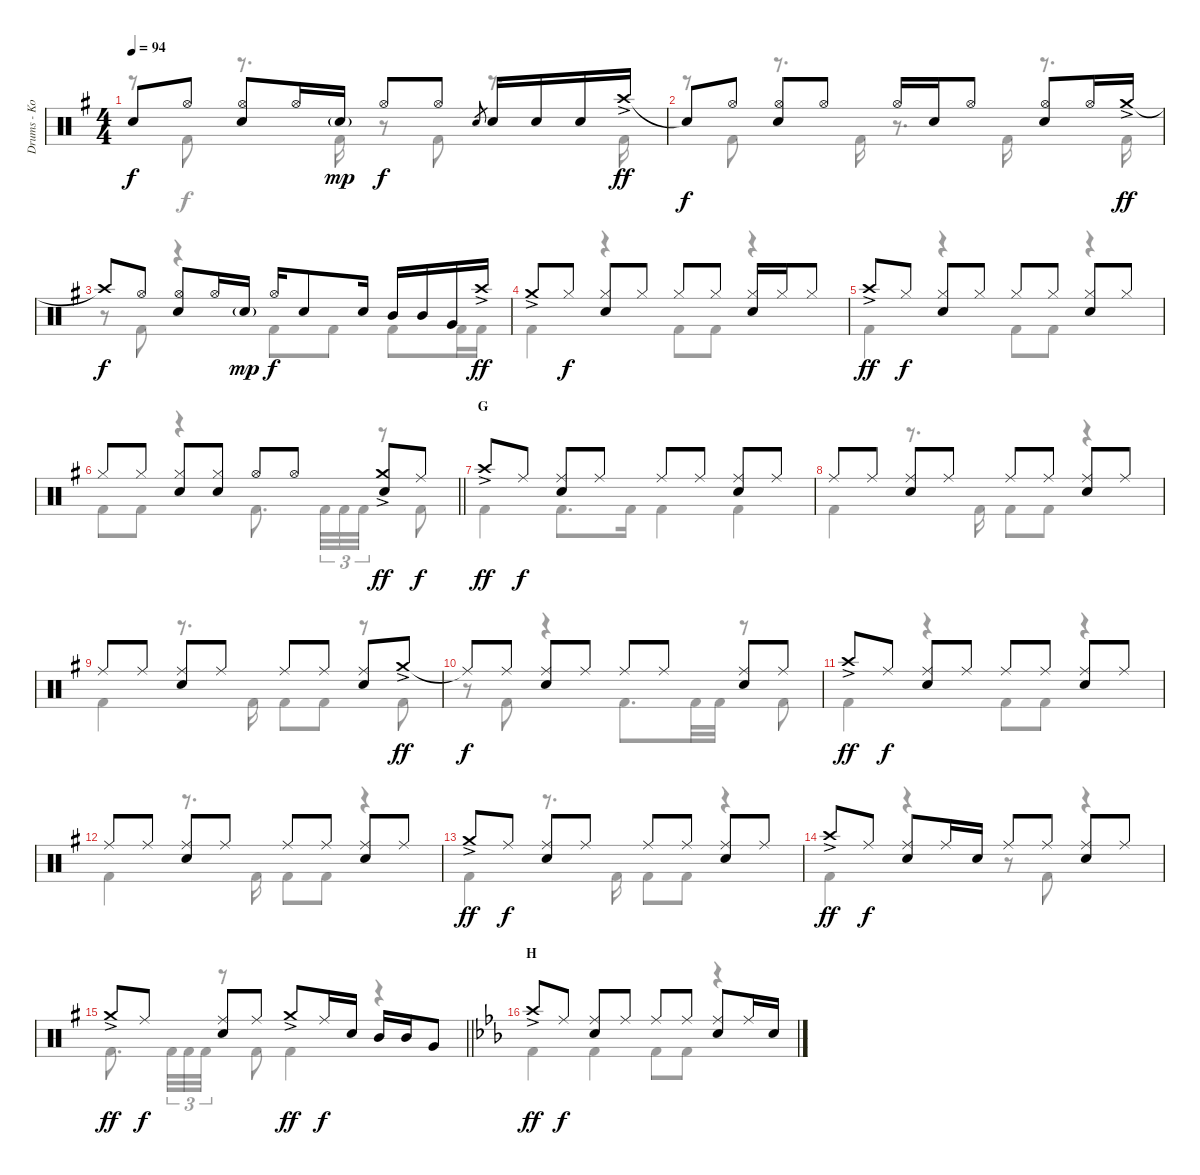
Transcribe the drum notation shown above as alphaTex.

\track ("Drums - Koji Hasegawa" "Drums - Ko") {instrument percussion}
\staff {score}
\articulation defaults
\voice
\ts (4 4)
\tempo 94
\clef neutral
\ks g "Snare (hit)"{t}.8{dy f} "Hi-Hat (open)".8
("Hi-Hat (open)" "Electric Snare (hit)").8 "Hi-Hat (open)".16 "Electric Snare (hit)"{g}.16{dy mp} "Hi-Hat (open)".8{dy f} "Hi-Hat (open)".8 "Electric Snare (hit)".8{gr} "Electric Snare (hit)".16 "Electric Snare (hit)".16 "Electric Snare (hit)".16 "Crash high (hit)"{ac}.16{dy ff} |
"Snare (hit)"{t}.8{dy f} "Hi-Hat (open)".8 ("Hi-Hat (open)" "Snare (hit) 2").8 "Hi-Hat (open)".8 "Hi-Hat (open)".16 "Electric Snare (hit)".16 "Hi-Hat (open)".8 ("Hi-Hat (open)" "Snare (hit) 2").8 "Hi-Hat (open)".16 "Crash medium (hit)"{ac}.16{dy ff} |
"Crash high (hit)"{t}.8{dy f} "Hi-Hat (open)".8 ("Hi-Hat (open)" "Electric Snare (hit)").8 "Hi-Hat (open)".16 "Electric Snare (hit)"{g}.16{dy mp} "Hi-Hat (open)".16{dy f} "Electric Snare (hit)".8 "Electric Snare (hit)".16 "Mid Tom (hit)".16 "Mid Tom (hit)".16 "Very Low Tom (hit)".16 "Crash high (hit)"{ac}.16{dy ff} |
"Crash medium (hit)"{ac}.8 "Hi-Hat (closed)".8{dy f} ("Hi-Hat (closed)" "Electric Snare (hit)").8 "Hi-Hat (closed)".8 "Hi-Hat (closed)".8 "Hi-Hat (closed)".8 ("Hi-Hat (closed)" "Electric Snare (hit)").16 "Hi-Hat (closed)".16 "Hi-Hat (closed)".8 |
"Crash high (hit)"{ac}.8{dy ff} "Hi-Hat (closed)".8{dy f} ("Hi-Hat (closed)" "Electric Snare (hit)").8 "Hi-Hat (closed)".8 "Hi-Hat (closed)".8 "Hi-Hat (closed)".8 ("Hi-Hat (closed)" "Electric Snare (hit)").8 "Hi-Hat (closed)".8 |
\barLineRight lightlight "Hi-Hat (closed)".8 "Hi-Hat (closed)".8
("Hi-Hat (closed)" "Electric Snare (hit)").8 ("Hi-Hat (closed)" "Electric Snare (hit)").8 "Hi-Hat (open)".8 "Hi-Hat (open)".8 ("Crash medium (hit)"{ac} "Electric Snare (hit)").8{dy ff} "Ride (middle)".8{dy f} |
\section ("" "G")
"Crash high (hit)"{ac}.8{dy ff} "Ride (middle)".8{dy f} ("Ride (middle)" "Electric Snare (hit)").8 "Ride (middle)".8 "Ride (middle)".8 "Ride (middle)".8 ("Ride (middle)" "Electric Snare (hit)").8 "Ride (middle)".8 |
"Ride (middle)".8 "Ride (middle)".8 ("Ride (middle)" "Electric Snare (hit)").8 "Ride (middle)".8 "Ride (middle)".8 "Ride (middle)".8 ("Ride (middle)" "Electric Snare (hit)").8 "Ride (middle)".8 |
"Ride (middle)".8 "Ride (middle)".8 ("Ride (middle)" "Electric Snare (hit)").8 "Ride (middle)".8 "Ride (middle)".8 "Ride (middle)".8 ("Ride (middle)" "Electric Snare (hit)").8 "Crash medium (hit)"{ac}.8{dy ff} |
"Ride (middle)"{t}.8{dy f} "Ride (middle)".8 ("Ride (middle)" "Electric Snare (hit)").8 "Ride (middle)".8 "Ride (middle)".8 "Ride (middle)".8 ("Ride (middle)" "Electric Snare (hit)").8 "Ride (middle)".8 |
"Crash high (hit)"{ac}.8{dy ff} "Ride (middle)".8{dy f} ("Ride (middle)" "Electric Snare (hit)").8 "Ride (middle)".8 "Ride (middle)".8 "Ride (middle)".8 ("Ride (middle)" "Electric Snare (hit)").8 "Ride (middle)".8 |
"Ride (middle)".8 "Ride (middle)".8 ("Ride (middle)" "Electric Snare (hit)").8 "Ride (middle)".8 "Ride (middle)".8 "Ride (middle)".8 ("Ride (middle)" "Electric Snare (hit)").8 "Ride (middle)".8 |
"Crash medium (hit)"{ac}.8{dy ff} "Ride (middle)".8{dy f} ("Ride (middle)" "Electric Snare (hit)").8 "Ride (middle)".8 "Ride (middle)".8 "Ride (middle)".8 ("Ride (middle)" "Electric Snare (hit)").8 "Ride (middle)".8 |
"Crash high (hit)"{ac}.8{dy ff} "Ride (middle)".8{dy f} ("Ride (middle)" "Electric Snare (hit)").8 "Ride (middle)".16 "Electric Snare (hit)".16 "Ride (middle)".8 "Ride (middle)".8 ("Ride (middle)" "Electric Snare (hit)").8 "Ride (middle)".8 |
\barLineRight lightlight "Crash medium (hit)"{ac}.8{dy ff} "Ride (middle)".8{dy f}
("Ride (middle)" "Electric Snare (hit)").8 "Ride (middle)".8 "Crash medium (hit)"{ac}.8{dy ff} "Ride (middle)".16{dy f} "Electric Snare (hit)".16 "Mid Tom (hit)".16 "Mid Tom (hit)".16 "Very Low Tom (hit)".8 |
\section ("" "H")
\ks eb "Crash high (hit)"{ac}.8{dy ff} "Ride (middle)".8{dy f}
("Ride (middle)" "Electric Snare (hit)").8 "Ride (middle)".8 "Ride (middle)".8 "Ride (middle)".8 ("Ride (middle)" "Electric Snare (hit)").8 "Ride (middle)".16 "Electric Snare (hit)".16
\voice
\clef neutral
\ottava regular
\simile none
\ks g
r.8{dy f} "Kick (hit) 2".8 r.8{d} "Kick (hit) 2".16 r.8 "Kick (hit) 2".8 r.8{d} "Kick (hit) 2".16 |
r.8 "Kick (hit) 2".8 r.8{d} "Kick (hit) 2".16 r.8{d} "Kick (hit) 2".16 r.8{d} "Kick (hit) 2".16 |
r.8 "Kick (hit) 2".8 r.4 "Kick (hit) 2".8 "Kick (hit) 2".8 "Kick (hit) 2".8 "Kick (hit) 2".16 "Kick (hit) 2".16 |
"Kick (hit) 2".4 r.4 "Kick (hit) 2".8 "Kick (hit) 2".8 r.4 |
"Kick (hit) 2".4 r.4 "Kick (hit) 2".8 "Kick (hit) 2".8 r.4 |
\barLineRight lightlight "Kick (hit) 2".8 "Kick (hit) 2".8
r.4 "Kick (hit) 2".8{d} "Kick (hit) 2".32{tu (3 2)} "Kick (hit) 2".32{tu (3 2)} "Kick (hit) 2".32{tu (3 2)} r.8 "Kick (hit) 2".8 |
"Kick (hit) 2".4 "Kick (hit) 2".8{d} "Kick (hit) 2".16 "Kick (hit) 2".4 "Kick (hit) 2".4 |
"Kick (hit) 2".4 r.8{d} "Kick (hit) 2".16 "Kick (hit) 2".8 "Kick (hit) 2".8 r.4 |
"Kick (hit) 2".4 r.8{d} "Kick (hit) 2".16 "Kick (hit) 2".8 "Kick (hit) 2".8 r.8 "Kick (hit) 2".8 |
r.8 "Kick (hit) 2".8 r.4 "Kick (hit) 2".8{d} "Kick (hit) 2".32 "Kick (hit) 2".32 r.8 "Kick (hit) 2".8 |
"Kick (hit) 2".4 r.4 "Kick (hit) 2".8 "Kick (hit) 2".8 r.4 |
"Kick (hit) 2".4 r.8{d} "Kick (hit) 2".16 "Kick (hit) 2".8 "Kick (hit) 2".8 r.4 |
"Kick (hit) 2".4 r.8{d} "Kick (hit) 2".16 "Kick (hit) 2".8 "Kick (hit) 2".8 r.4 |
"Kick (hit) 2".4 r.4 r.8 "Kick (hit) 2".8 r.4 |
\barLineRight lightlight "Kick (hit) 2".8{d} "Kick (hit) 2".32{tu (3 2)} "Kick (hit) 2".32{tu (3 2)} "Kick (hit) 2".32{tu (3 2)}
r.8 "Kick (hit) 2".8 "Kick (hit) 2".4 r.4 |
\ks eb "Kick (hit) 2".4 "Kick (hit) 2".4 "Kick (hit) 2".8 "Kick (hit) 2".8
r.4
